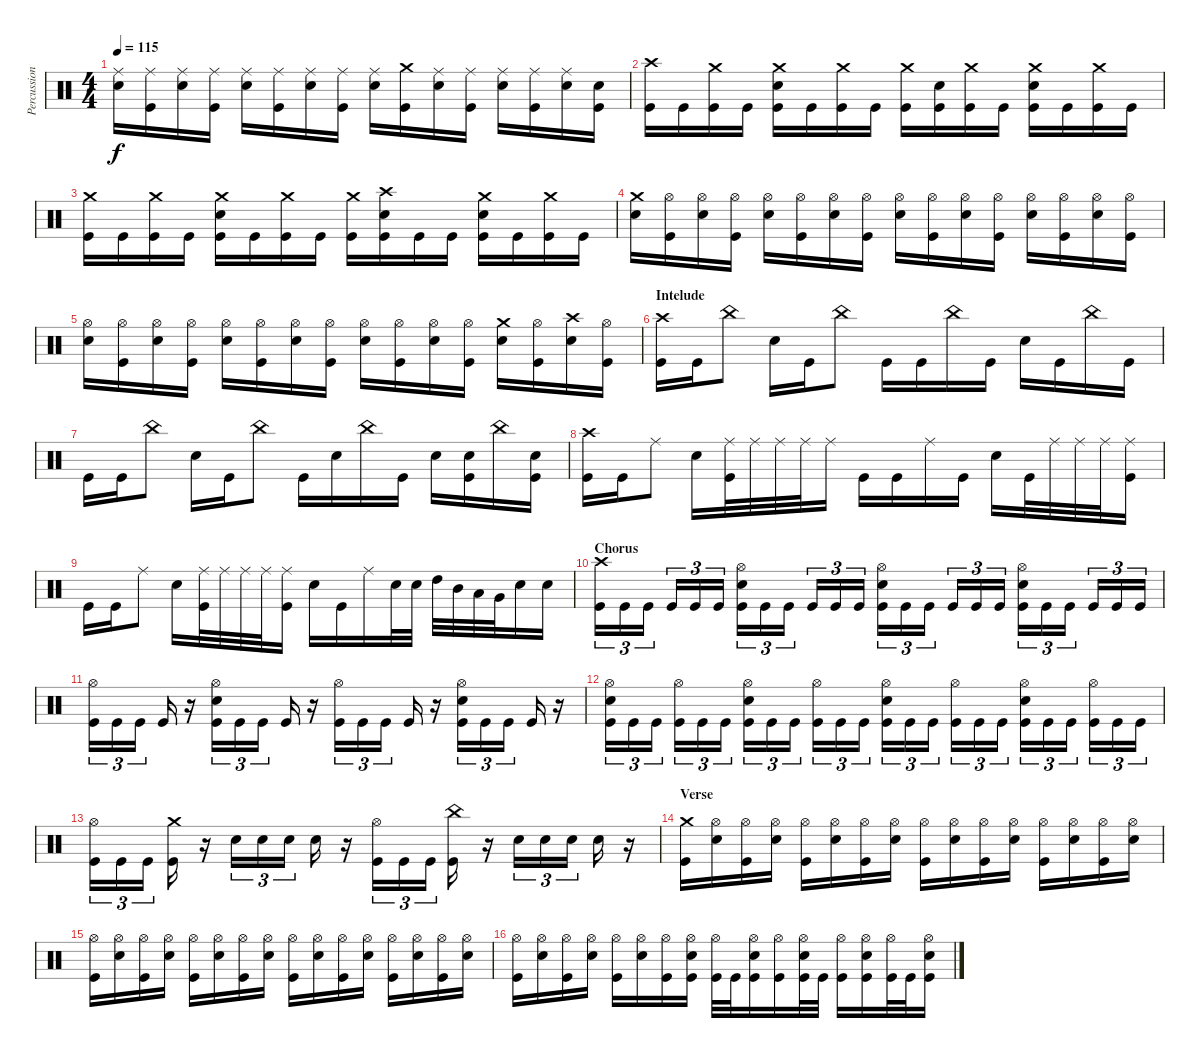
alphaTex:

\track ("Percussion" "Percussion") {instrument percussion}
\staff {score}
\articulation defaults
\ts (4 4)
\tempo 115
\clef neutral
\ks c
("Ride (middle)" "Electric Snare (hit)").16{dy f} ("Ride (middle)" "Kick (hit)").16 ("Ride (middle)" "Electric Snare (hit)").16 ("Ride (middle)" "Kick (hit)").16 ("Ride (middle)" "Electric Snare (hit)").16 ("Ride (middle)" "Kick (hit)").16 ("Ride (middle)" "Electric Snare (hit)").16 ("Ride (middle)" "Kick (hit)").16 ("Ride (middle)" "Electric Snare (hit)").16 ("Crash medium (hit)" "Kick (hit)").16 ("Ride (middle)" "Electric Snare (hit)").16 ("Ride (middle)" "Kick (hit)").16 ("Ride (middle)" "Electric Snare (hit)").16 ("Ride (middle)" "Kick (hit)").16 ("Ride (middle)" "Electric Snare (hit)").16 ("Electric Snare (hit)" "Kick (hit)").16 |
("Crash high (hit)" "Kick (hit)").16 "Kick (hit)".16 ("Crash medium (hit)" "Kick (hit)").16 "Kick (hit)".16 ("Crash medium (hit)" "Electric Snare (hit)" "Kick (hit)").16 "Kick (hit)".16 ("Crash medium (hit)" "Kick (hit)").16 "Kick (hit)".16 ("Crash medium (hit)" "Kick (hit)").16 ("Electric Snare (hit)" "Kick (hit)").16 ("Crash medium (hit)" "Kick (hit)").16 "Kick (hit)".16 ("Crash medium (hit)" "Electric Snare (hit)" "Kick (hit)").16 "Kick (hit)".16 ("Crash medium (hit)" "Kick (hit)").16 "Kick (hit)".16 |
("Crash medium (hit)" "Kick (hit)").16 "Kick (hit)".16 ("Crash medium (hit)" "Kick (hit)").16 "Kick (hit)".16 ("Crash medium (hit)" "Electric Snare (hit)" "Kick (hit)").16 "Kick (hit)".16 ("Crash medium (hit)" "Kick (hit)").16 "Kick (hit)".16 ("Crash medium (hit)" "Kick (hit)").16 ("Crash high (hit)" "Electric Snare (hit)" "Kick (hit)").16 "Kick (hit)".16 "Kick (hit)".16 ("Crash medium (hit)" "Electric Snare (hit)" "Kick (hit)").16 "Kick (hit)".16 ("Crash medium (hit)" "Kick (hit)").16 "Kick (hit)".16 |
("Crash medium (hit)" "Electric Snare (hit)").16 ("Hi-Hat (open)" "Kick (hit)").16 ("Hi-Hat (open)" "Electric Snare (hit)").16 ("Hi-Hat (open)" "Kick (hit)").16 ("Hi-Hat (open)" "Electric Snare (hit)").16 ("Hi-Hat (open)" "Kick (hit)").16 ("Hi-Hat (open)" "Electric Snare (hit)").16 ("Hi-Hat (open)" "Kick (hit)").16 ("Hi-Hat (open)" "Electric Snare (hit)").16 ("Hi-Hat (open)" "Kick (hit)").16 ("Hi-Hat (open)" "Electric Snare (hit)").16 ("Hi-Hat (open)" "Kick (hit)").16 ("Hi-Hat (open)" "Electric Snare (hit)").16 ("Hi-Hat (open)" "Kick (hit)").16 ("Hi-Hat (open)" "Electric Snare (hit)").16 ("Hi-Hat (open)" "Kick (hit)").16 |
("Hi-Hat (open)" "Electric Snare (hit)").16 ("Hi-Hat (open)" "Kick (hit)").16 ("Hi-Hat (open)" "Electric Snare (hit)").16 ("Hi-Hat (open)" "Kick (hit)").16 ("Hi-Hat (open)" "Electric Snare (hit)").16 ("Hi-Hat (open)" "Kick (hit)").16 ("Hi-Hat (open)" "Electric Snare (hit)").16 ("Hi-Hat (open)" "Kick (hit)").16 ("Hi-Hat (open)" "Electric Snare (hit)").16 ("Hi-Hat (open)" "Kick (hit)").16 ("Hi-Hat (open)" "Electric Snare (hit)").16 ("Hi-Hat (open)" "Kick (hit)").16 ("Crash medium (hit)" "Electric Snare (hit)").16 ("Hi-Hat (open)" "Kick (hit)").16 ("Crash high (hit)" "Electric Snare (hit)").16 ("Hi-Hat (open)" "Kick (hit)").16 |
\section ("" "Intelude")
("Crash high (hit)" "Kick (hit)").16 "Kick (hit)".16 "China (hit)".8 "Electric Snare (hit)".16 "Kick (hit)".16 "China (hit)".8 "Kick (hit)".16 "Kick (hit)".16 "China (hit)".16 "Kick (hit)".16 "Electric Snare (hit)".16 "Kick (hit)".16 "China (hit)".16 "Kick (hit)".16 |
"Kick (hit)".16 "Kick (hit)".16 "China (hit)".8 "Electric Snare (hit)".16 "Kick (hit)".16 "China (hit)".8 "Kick (hit)".16 "Electric Snare (hit)".16 "China (hit)".16 "Kick (hit)".16 "Electric Snare (hit)".16 ("Electric Snare (hit)" "Kick (hit)").16 "China (hit)".16 ("Electric Snare (hit)" "Kick (hit)").16 |
("Crash high (hit)" "Kick (hit)").16 "Kick (hit)".16 "Ride (middle)".8 "Electric Snare (hit)".16 ("Ride (middle)" "Kick (hit)").32 "Ride (middle)".32 "Ride (middle)".32 "Ride (middle)".32 "Ride (middle)".16 "Kick (hit)".16 "Kick (hit)".16 "Ride (middle)".16 "Kick (hit)".16 "Electric Snare (hit)".16 "Kick (hit)".32 "Ride (middle)".32 "Ride (middle)".32 "Ride (middle)".32 ("Ride (middle)" "Kick (hit)").16 |
"Kick (hit)".16 "Kick (hit)".16 "Ride (middle)".8 "Electric Snare (hit)".16 ("Ride (middle)" "Kick (hit)").32 "Ride (middle)".32 "Ride (middle)".32 "Ride (middle)".32 ("Ride (middle)" "Kick (hit)").16 "Electric Snare (hit)".16 "Kick (hit)".16 "Ride (middle)".16 "Electric Snare (hit)".32 "Electric Snare (hit)".32 "High Tom (hit)".32 "Mid Tom (hit)".32 "Low Tom (hit)".32 "Very Low Tom (hit)".32 "Electric Snare (hit)".16 "Electric Snare (hit)".16 |
\section ("" "Chorus")
("Crash high (hit)" "Kick (hit)").16{tu (3 2)} "Kick (hit)".16{tu (3 2)} "Kick (hit)".16{tu (3 2)} "Kick (hit)".16{tu (3 2)} "Kick (hit)".16{tu (3 2)} "Kick (hit)".16{tu (3 2)} ("Hi-Hat (open)" "Electric Snare (hit)" "Kick (hit)").16{tu (3 2)} "Kick (hit)".16{tu (3 2)} "Kick (hit)".16{tu (3 2)} "Kick (hit)".16{tu (3 2)} "Kick (hit)".16{tu (3 2)} "Kick (hit)".16{tu (3 2)} ("Hi-Hat (open)" "Electric Snare (hit)" "Kick (hit)").16{tu (3 2)} "Kick (hit)".16{tu (3 2)} "Kick (hit)".16{tu (3 2)} "Kick (hit)".16{tu (3 2)} "Kick (hit)".16{tu (3 2)} "Kick (hit)".16{tu (3 2)} ("Hi-Hat (open)" "Electric Snare (hit)" "Kick (hit)").16{tu (3 2)} "Kick (hit)".16{tu (3 2)} "Kick (hit)".16{tu (3 2)} "Kick (hit)".16{tu (3 2)} "Kick (hit)".16{tu (3 2)} "Kick (hit)".16{tu (3 2)} |
("Hi-Hat (open)" "Kick (hit)").16{tu (3 2)} "Kick (hit)".16{tu (3 2)} "Kick (hit)".16{tu (3 2)} "Kick (hit)".16 r.16 ("Hi-Hat (open)" "Electric Snare (hit)" "Kick (hit)").16{tu (3 2)} "Kick (hit)".16{tu (3 2)} "Kick (hit)".16{tu (3 2)} "Kick (hit)".16 r.16 ("Hi-Hat (open)" "Kick (hit)").16{tu (3 2)} "Kick (hit)".16{tu (3 2)} "Kick (hit)".16{tu (3 2)} "Kick (hit)".16 r.16 ("Hi-Hat (open)" "Electric Snare (hit)" "Kick (hit)").16{tu (3 2)} "Kick (hit)".16{tu (3 2)} "Kick (hit)".16{tu (3 2)} "Kick (hit)".16 r.16 |
("Hi-Hat (open)" "Electric Snare (hit)" "Kick (hit)").16{tu (3 2)} "Kick (hit)".16{tu (3 2)} "Kick (hit)".16{tu (3 2)} ("Hi-Hat (open)" "Kick (hit)").16{tu (3 2)} "Kick (hit)".16{tu (3 2)} "Kick (hit)".16{tu (3 2)} ("Hi-Hat (open)" "Electric Snare (hit)" "Kick (hit)").16{tu (3 2)} "Kick (hit)".16{tu (3 2)} "Kick (hit)".16{tu (3 2)} ("Hi-Hat (open)" "Kick (hit)").16{tu (3 2)} "Kick (hit)".16{tu (3 2)} "Kick (hit)".16{tu (3 2)} ("Hi-Hat (open)" "Electric Snare (hit)" "Kick (hit)").16{tu (3 2)} "Kick (hit)".16{tu (3 2)} "Kick (hit)".16{tu (3 2)} ("Hi-Hat (open)" "Kick (hit)").16{tu (3 2)} "Kick (hit)".16{tu (3 2)} "Kick (hit)".16{tu (3 2)} ("Hi-Hat (open)" "Electric Snare (hit)" "Kick (hit)").16{tu (3 2)} "Kick (hit)".16{tu (3 2)} "Kick (hit)".16{tu (3 2)} ("Hi-Hat (open)" "Kick (hit)").16{tu (3 2)} "Kick (hit)".16{tu (3 2)} "Kick (hit)".16{tu (3 2)} |
("Hi-Hat (open)" "Kick (hit)").16{tu (3 2)} "Kick (hit)".16{tu (3 2)} "Kick (hit)".16{tu (3 2)} ("Crash medium (hit)" "Kick (hit)").16 r.16 "Electric Snare (hit)".16{tu (3 2)} "Electric Snare (hit)".16{tu (3 2)} "Electric Snare (hit)".16{tu (3 2)} "Electric Snare (hit)".16 r.16 ("Hi-Hat (open)" "Kick (hit)").16{tu (3 2)} "Kick (hit)".16{tu (3 2)} "Kick (hit)".16{tu (3 2)} ("China (hit)" "Kick (hit)").16 r.16 "Electric Snare (hit)".16{tu (3 2)} "Electric Snare (hit)".16{tu (3 2)} "Electric Snare (hit)".16{tu (3 2)} "Electric Snare (hit)".16 r.16 |
\section ("" "Verse")
("Crash medium (hit)" "Kick (hit)").16 ("Hi-Hat (open)" "Electric Snare (hit)").16 ("Hi-Hat (open)" "Kick (hit)").16 ("Hi-Hat (open)" "Electric Snare (hit)").16 ("Hi-Hat (open)" "Kick (hit)").16 ("Hi-Hat (open)" "Electric Snare (hit)").16 ("Hi-Hat (open)" "Kick (hit)").16 ("Hi-Hat (open)" "Electric Snare (hit)").16 ("Hi-Hat (open)" "Kick (hit)").16 ("Hi-Hat (open)" "Electric Snare (hit)").16 ("Hi-Hat (open)" "Kick (hit)").16 ("Hi-Hat (open)" "Electric Snare (hit)").16 ("Hi-Hat (open)" "Kick (hit)").16 ("Hi-Hat (open)" "Electric Snare (hit)").16 ("Hi-Hat (open)" "Kick (hit)").16 ("Hi-Hat (open)" "Electric Snare (hit)").16 |
("Hi-Hat (open)" "Kick (hit)").16 ("Hi-Hat (open)" "Electric Snare (hit)").16 ("Hi-Hat (open)" "Kick (hit)").16 ("Hi-Hat (open)" "Electric Snare (hit)").16 ("Hi-Hat (open)" "Kick (hit)").16 ("Hi-Hat (open)" "Electric Snare (hit)").16 ("Hi-Hat (open)" "Kick (hit)").16 ("Hi-Hat (open)" "Electric Snare (hit)").16 ("Hi-Hat (open)" "Kick (hit)").16 ("Hi-Hat (open)" "Electric Snare (hit)").16 ("Hi-Hat (open)" "Kick (hit)").16 ("Hi-Hat (open)" "Electric Snare (hit)").16 ("Hi-Hat (open)" "Kick (hit)").16 ("Hi-Hat (open)" "Electric Snare (hit)").16 ("Hi-Hat (open)" "Kick (hit)").16 ("Hi-Hat (open)" "Electric Snare (hit)").16 |
("Hi-Hat (open)" "Kick (hit)").16 ("Hi-Hat (open)" "Electric Snare (hit)").16 ("Hi-Hat (open)" "Kick (hit)").16 ("Hi-Hat (open)" "Electric Snare (hit)").16 ("Hi-Hat (open)" "Kick (hit)").16 ("Hi-Hat (open)" "Electric Snare (hit)").16 ("Hi-Hat (open)" "Kick (hit)").16 ("Hi-Hat (open)" "Electric Snare (hit)" "Kick (hit)").16 ("Hi-Hat (open)" "Kick (hit)").32 "Kick (hit)".32 ("Hi-Hat (open)" "Electric Snare (hit)" "Kick (hit)").16 ("Hi-Hat (open)" "Kick (hit)").16 ("Hi-Hat (open)" "Electric Snare (hit)" "Kick (hit)").32 "Kick (hit)".32 ("Hi-Hat (open)" "Kick (hit)").16 ("Hi-Hat (open)" "Electric Snare (hit)" "Kick (hit)").16 ("Hi-Hat (open)" "Kick (hit)").32 "Kick (hit)".32 ("Hi-Hat (open)" "Electric Snare (hit)" "Kick (hit)").16
